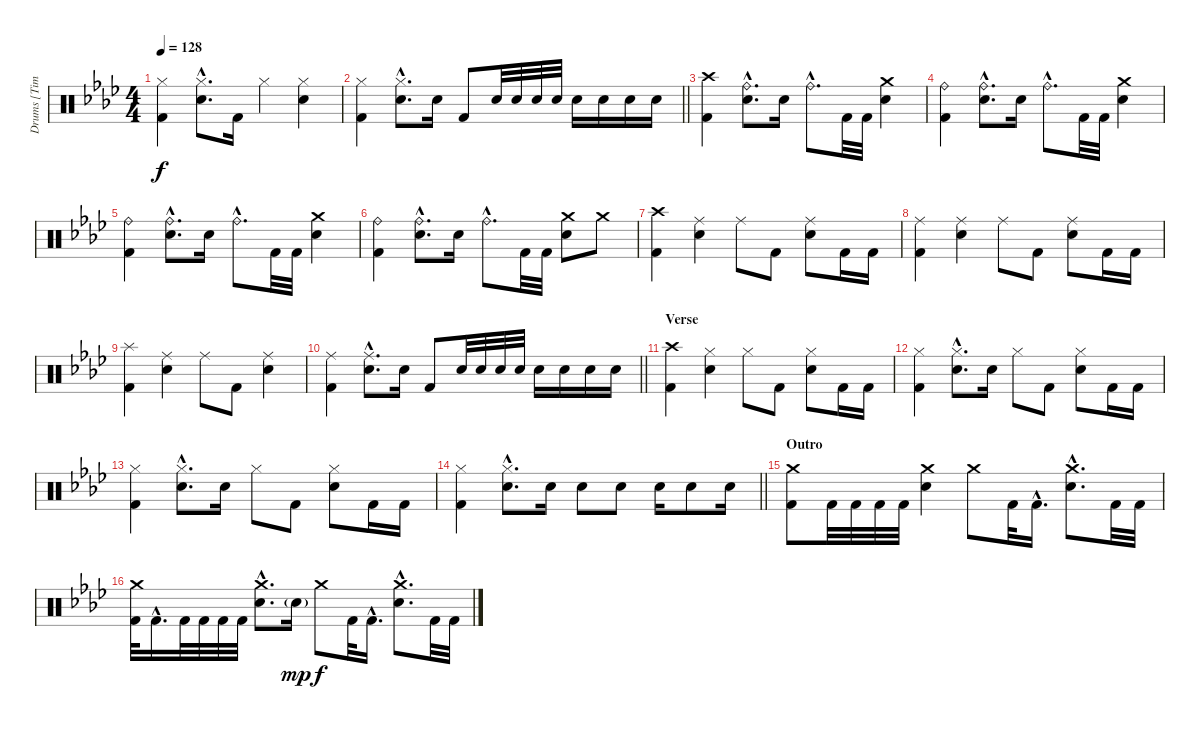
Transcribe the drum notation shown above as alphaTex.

\track ("Drums [Tim Alexander]" "Drums [Tim") {instrument percussion}
\staff {score}
\articulation defaults
\ts (4 4)
\tempo 128
\clef neutral
\ks ab
("Hi-Hat (closed)" "Kick (hit) 2").4{dy f} ("Hi-Hat (closed)"{hac} "Electric Snare (hit)"{hac}).8{d} "Kick (hit) 2".16 "Hi-Hat (closed)".4 ("Hi-Hat (closed)" "Electric Snare (hit)").4 |
\barLineRight lightlight
("Hi-Hat (closed)" "Kick (hit) 2").4 ("Hi-Hat (closed)"{hac} "Electric Snare (hit)"{hac}).8{d} "Electric Snare (hit)".16 "Kick (hit) 2".8 "Electric Snare (hit)".32 "Electric Snare (hit)".32 "Electric Snare (hit)".32 "Electric Snare (hit)".32 "Electric Snare (hit)".16 "Electric Snare (hit)".16 "Electric Snare (hit)".16 "Electric Snare (hit)".16 |
("Crash high (hit)" "Kick (hit) 2").4 ("Ride (bell)"{hac} "Electric Snare (hit)"{hac}).8{d} "Electric Snare (hit)".16 "Ride (bell)"{hac}.8{d} "Kick (hit) 2".32 "Kick (hit) 2".32 ("Crash medium (hit)" "Electric Snare (hit)").4 |
("Ride (bell)" "Kick (hit) 2").4 ("Ride (bell)"{hac} "Electric Snare (hit)"{hac}).8{d} "Electric Snare (hit)".16 "Ride (bell)"{hac}.8{d} "Kick (hit) 2".32 "Kick (hit) 2".32 ("Crash medium (hit)" "Electric Snare (hit)").4 |
("Ride (bell)" "Kick (hit) 2").4 ("Ride (bell)"{hac} "Electric Snare (hit)"{hac}).8{d} "Electric Snare (hit)".16 "Ride (bell)"{hac}.8{d} "Kick (hit) 2".32 "Kick (hit) 2".32 ("Crash medium (hit)" "Electric Snare (hit)").4 |
("Ride (bell)" "Kick (hit) 2").4 ("Ride (bell)"{hac} "Electric Snare (hit)"{hac}).8{d} "Electric Snare (hit)".16 "Ride (bell)"{hac}.8{d} "Kick (hit) 2".32 "Kick (hit) 2".32 ("Crash medium (hit)" "Electric Snare (hit)").8 "Crash medium (hit)".8 |
("Crash high (hit)" "Kick (hit) 2").4 ("Ride (middle)" "Electric Snare (hit)").4 "Ride (middle)".8 "Kick (hit) 2".8 ("Ride (middle)" "Electric Snare (hit)").8 "Kick (hit) 2".16 "Kick (hit) 2".16 |
("Ride (middle)" "Kick (hit) 2").4 ("Ride (middle)" "Electric Snare (hit)").4 "Ride (middle)".8 "Kick (hit) 2".8 ("Ride (middle)" "Electric Snare (hit)").8 "Kick (hit) 2".16 "Kick (hit) 2".16 |
("Splash (hit)" "Kick (hit) 2").4 ("Ride (middle)" "Electric Snare (hit)").4 "Ride (middle)".8 "Kick (hit) 2".8 ("Ride (middle)" "Electric Snare (hit)").4 |
\barLineRight lightlight
("Ride (middle)" "Kick (hit) 2").4 ("Ride (middle)"{hac} "Electric Snare (hit)"{hac}).8{d} "Electric Snare (hit)".16 "Kick (hit) 2".8 "Electric Snare (hit)".32 "Electric Snare (hit)".32 "Electric Snare (hit)".32 "Electric Snare (hit)".32 "Electric Snare (hit)".16 "Electric Snare (hit)".16 "Electric Snare (hit)".16 "Electric Snare (hit)".16 |
\section ("" "Verse")
("Crash high (hit)" "Kick (hit) 2").4 ("Hi-Hat (closed)" "Electric Snare (hit)").4 "Hi-Hat (closed)".8 "Kick (hit) 2".8 ("Hi-Hat (closed)" "Electric Snare (hit)").8 "Kick (hit) 2".16 "Kick (hit) 2".16 |
("Hi-Hat (closed)" "Kick (hit) 2").4 ("Hi-Hat (closed)"{hac} "Electric Snare (hit)"{hac}).8{d} "Electric Snare (hit)".16 "Hi-Hat (closed)".8 "Kick (hit) 2".8 ("Hi-Hat (closed)" "Electric Snare (hit)").8 "Kick (hit) 2".16 "Kick (hit) 2".16 |
("Hi-Hat (closed)" "Kick (hit) 2").4 ("Hi-Hat (closed)"{hac} "Electric Snare (hit)"{hac}).8{d} "Electric Snare (hit)".16 "Hi-Hat (closed)".8 "Kick (hit) 2".8 ("Hi-Hat (closed)" "Electric Snare (hit)").8 "Kick (hit) 2".16 "Kick (hit) 2".16 |
\barLineRight lightlight
("Hi-Hat (closed)" "Kick (hit) 2").4 ("Hi-Hat (closed)"{hac} "Electric Snare (hit)"{hac}).8{d} "Electric Snare (hit)".16 "Electric Snare (hit)".8 "Electric Snare (hit)".8 "Electric Snare (hit)".16 "Electric Snare (hit)".8 "Electric Snare (hit)".16 |
\section ("" "Outro")
("Crash medium (hit)" "Kick (hit) 2").8 "Kick (hit) 2".32 "Kick (hit) 2".32 "Kick (hit) 2".32 "Kick (hit) 2".32 ("Crash medium (hit)" "Electric Snare (hit)").4 "Crash medium (hit)".8 "Kick (hit) 2".32 "Kick (hit) 2"{hac}.16{d} ("Crash medium (hit)"{hac} "Electric Snare (hit)"{hac}).8{d} "Kick (hit) 2".32 "Kick (hit) 2".32 |
("Crash medium (hit)" "Kick (hit) 2").32 "Kick (hit) 2"{hac}.16{d} "Kick (hit) 2".32 "Kick (hit) 2".32 "Kick (hit) 2".32 "Kick (hit) 2".32 ("Crash medium (hit)"{hac} "Electric Snare (hit)"{hac}).8{d} "Electric Snare (hit)"{g}.16{dy mp} "Crash medium (hit)".8{dy f} "Kick (hit) 2".32 "Kick (hit) 2"{hac}.16{d} ("Crash medium (hit)"{hac} "Electric Snare (hit)"{hac}).8{d} "Kick (hit) 2".32 "Kick (hit) 2".32
